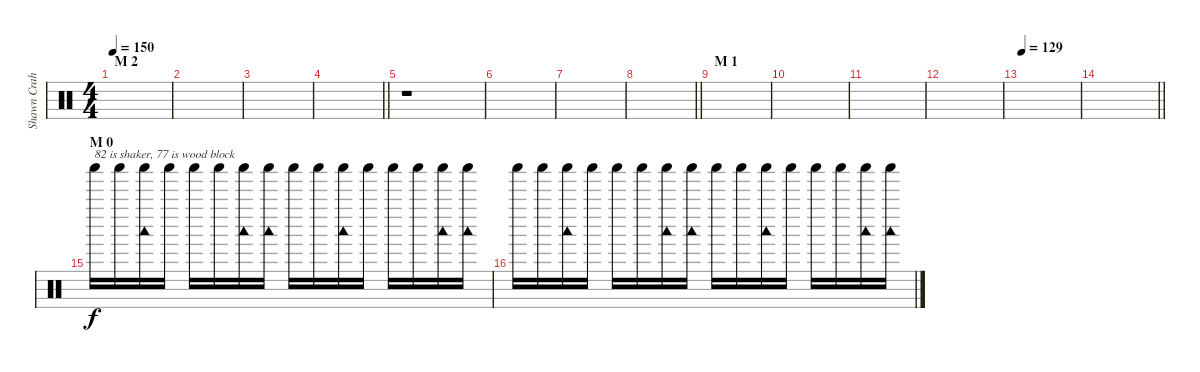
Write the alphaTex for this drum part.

\track ("Shawn Crahan" "Shawn Crah") {instrument percussion}
\staff {score}
\articulation defaults
\ts (4 4)
\section ("" "M 2")
\tempo 150
\clef neutral
\ks c
|
|
|
\barLineRight lightlight
|
r.1 |
|
|
\barLineRight lightlight
|
\section ("" "M 1")
|
|
|
|
\tempo 129
|
\barLineRight lightlight
|
\section ("" "M 0")
"Shaker (hit)".16{txt "82 is shaker, 77 is wood block"} "Shaker (hit)".16 ("Shaker (hit)" "Woodblock low (hit)").16 "Shaker (hit)".16 "Shaker (hit)".16 "Shaker (hit)".16 ("Shaker (hit)" "Woodblock low (hit)").16 ("Shaker (hit)" "Woodblock low (hit)").16 "Shaker (hit)".16 "Shaker (hit)".16 ("Shaker (hit)" "Woodblock low (hit)").16 "Shaker (hit)".16 "Shaker (hit)".16 "Shaker (hit)".16 ("Shaker (hit)" "Woodblock low (hit)").16 ("Shaker (hit)" "Woodblock low (hit)").16 |
"Shaker (hit)".16 "Shaker (hit)".16 ("Shaker (hit)" "Woodblock low (hit)").16 "Shaker (hit)".16 "Shaker (hit)".16 "Shaker (hit)".16 ("Shaker (hit)" "Woodblock low (hit)").16 ("Shaker (hit)" "Woodblock low (hit)").16 "Shaker (hit)".16 "Shaker (hit)".16 ("Shaker (hit)" "Woodblock low (hit)").16 "Shaker (hit)".16 "Shaker (hit)".16 "Shaker (hit)".16 ("Shaker (hit)" "Woodblock low (hit)").16 ("Shaker (hit)" "Woodblock low (hit)").16
